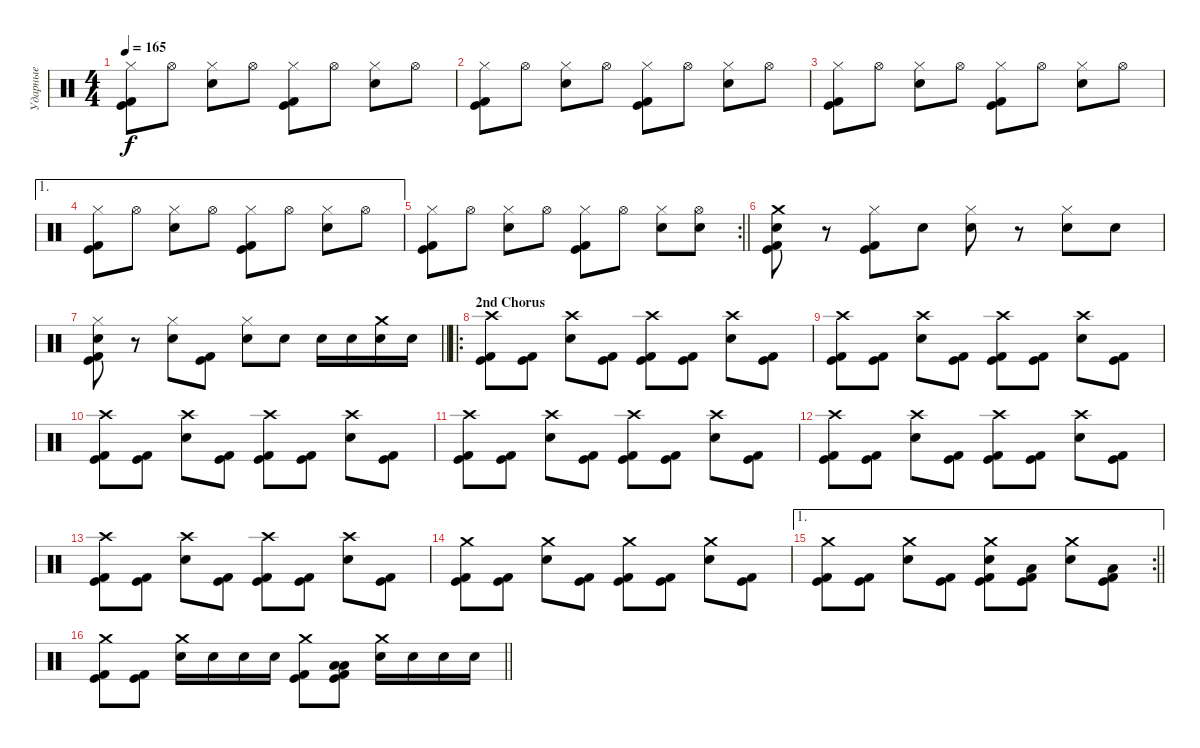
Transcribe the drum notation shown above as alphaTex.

\track ("Ударные" "Ударные") {instrument percussion}
\staff {score}
\articulation defaults
\ts (4 4)
\tempo 165
\clef neutral
\ks c
("Hi-Hat (closed)" "Kick (hit)" "Kick (hit) 2").8{dy f} "Hi-Hat (open)".8 ("Hi-Hat (closed)" "Electric Snare (hit)").8 "Hi-Hat (open)".8 ("Hi-Hat (closed)" "Kick (hit)" "Kick (hit) 2").8 "Hi-Hat (open)".8 ("Hi-Hat (closed)" "Electric Snare (hit)").8 "Hi-Hat (open)".8 |
("Hi-Hat (closed)" "Kick (hit)" "Kick (hit) 2").8 "Hi-Hat (open)".8 ("Hi-Hat (closed)" "Electric Snare (hit)").8 "Hi-Hat (open)".8 ("Hi-Hat (closed)" "Kick (hit)" "Kick (hit) 2").8 "Hi-Hat (open)".8 ("Hi-Hat (closed)" "Electric Snare (hit)").8 "Hi-Hat (open)".8 |
("Hi-Hat (closed)" "Kick (hit)" "Kick (hit) 2").8 "Hi-Hat (open)".8 ("Hi-Hat (closed)" "Electric Snare (hit)").8 "Hi-Hat (open)".8 ("Hi-Hat (closed)" "Kick (hit)" "Kick (hit) 2").8 "Hi-Hat (open)".8 ("Hi-Hat (closed)" "Electric Snare (hit)").8 "Hi-Hat (open)".8 |
\ae 1
("Hi-Hat (closed)" "Kick (hit)" "Kick (hit) 2").8 "Hi-Hat (open)".8 ("Hi-Hat (closed)" "Electric Snare (hit)").8 "Hi-Hat (open)".8 ("Hi-Hat (closed)" "Kick (hit)" "Kick (hit) 2").8 "Hi-Hat (open)".8 ("Hi-Hat (closed)" "Electric Snare (hit)").8 "Hi-Hat (open)".8 |
\rc 2
\barLineRight lightlight
("Hi-Hat (closed)" "Kick (hit)" "Kick (hit) 2").8 "Hi-Hat (open)".8 ("Hi-Hat (closed)" "Electric Snare (hit)").8 "Hi-Hat (open)".8 ("Hi-Hat (closed)" "Kick (hit)" "Kick (hit) 2").8 "Hi-Hat (open)".8 ("Hi-Hat (closed)" "Electric Snare (hit)").8 ("Hi-Hat (open)" "Electric Snare (hit)").8 |
("Crash medium (hit)" "Electric Snare (hit)" "Kick (hit)" "Kick (hit) 2").8 r.8 ("Hi-Hat (closed)" "Kick (hit)" "Kick (hit) 2").8 "Electric Snare (hit)".8 ("Hi-Hat (closed)" "Electric Snare (hit)").8 r.8 ("Hi-Hat (closed)" "Electric Snare (hit)").8 "Electric Snare (hit)".8 |
\barLineRight lightlight
("Hi-Hat (closed)" "Electric Snare (hit)" "Kick (hit)" "Kick (hit) 2").8 r.8 ("Hi-Hat (closed)" "Electric Snare (hit)").8 ("Kick (hit)" "Kick (hit) 2").8 ("Hi-Hat (closed)" "Electric Snare (hit)").8 "Electric Snare (hit)".8 "Electric Snare (hit)".16 "Electric Snare (hit)".16 ("Crash medium (hit)" "Electric Snare (hit)").16 "Electric Snare (hit)".16 |
\ro
\section ("" "2nd Chorus")
("Crash high (hit)" "Kick (hit)" "Kick (hit) 2").8 ("Kick (hit)" "Kick (hit) 2").8 ("Crash high (hit)" "Electric Snare (hit)").8 ("Kick (hit)" "Kick (hit) 2").8 ("Crash high (hit)" "Kick (hit)" "Kick (hit) 2").8 ("Kick (hit)" "Kick (hit) 2").8 ("Crash high (hit)" "Electric Snare (hit)").8 ("Kick (hit)" "Kick (hit) 2").8 |
("Crash high (hit)" "Kick (hit)" "Kick (hit) 2").8 ("Kick (hit)" "Kick (hit) 2").8 ("Crash high (hit)" "Electric Snare (hit)").8 ("Kick (hit)" "Kick (hit) 2").8 ("Crash high (hit)" "Kick (hit)" "Kick (hit) 2").8 ("Kick (hit)" "Kick (hit) 2").8 ("Crash high (hit)" "Electric Snare (hit)").8 ("Kick (hit)" "Kick (hit) 2").8 |
("Crash high (hit)" "Kick (hit)" "Kick (hit) 2").8 ("Kick (hit)" "Kick (hit) 2").8 ("Crash high (hit)" "Electric Snare (hit)").8 ("Kick (hit)" "Kick (hit) 2").8 ("Crash high (hit)" "Kick (hit)" "Kick (hit) 2").8 ("Kick (hit)" "Kick (hit) 2").8 ("Crash high (hit)" "Electric Snare (hit)").8 ("Kick (hit)" "Kick (hit) 2").8 |
("Crash high (hit)" "Kick (hit)" "Kick (hit) 2").8 ("Kick (hit)" "Kick (hit) 2").8 ("Crash high (hit)" "Electric Snare (hit)").8 ("Kick (hit)" "Kick (hit) 2").8 ("Crash high (hit)" "Kick (hit)" "Kick (hit) 2").8 ("Kick (hit)" "Kick (hit) 2").8 ("Crash high (hit)" "Electric Snare (hit)").8 ("Kick (hit)" "Kick (hit) 2").8 |
("Crash high (hit)" "Kick (hit)" "Kick (hit) 2").8 ("Kick (hit)" "Kick (hit) 2").8 ("Crash high (hit)" "Electric Snare (hit)").8 ("Kick (hit)" "Kick (hit) 2").8 ("Crash high (hit)" "Kick (hit)" "Kick (hit) 2").8 ("Kick (hit)" "Kick (hit) 2").8 ("Crash high (hit)" "Electric Snare (hit)").8 ("Kick (hit)" "Kick (hit) 2").8 |
("Crash high (hit)" "Kick (hit)" "Kick (hit) 2").8 ("Kick (hit)" "Kick (hit) 2").8 ("Crash high (hit)" "Electric Snare (hit)").8 ("Kick (hit)" "Kick (hit) 2").8 ("Crash high (hit)" "Kick (hit)" "Kick (hit) 2").8 ("Kick (hit)" "Kick (hit) 2").8 ("Crash high (hit)" "Electric Snare (hit)").8 ("Kick (hit)" "Kick (hit) 2").8 |
("Crash medium (hit)" "Kick (hit)" "Kick (hit) 2").8 ("Kick (hit)" "Kick (hit) 2").8 ("Crash medium (hit)" "Electric Snare (hit)").8 ("Kick (hit)" "Kick (hit) 2").8 ("Crash medium (hit)" "Kick (hit)" "Kick (hit) 2").8 ("Kick (hit)" "Kick (hit) 2").8 ("Crash medium (hit)" "Electric Snare (hit)").8 ("Kick (hit)" "Kick (hit) 2").8 |
\ae 1
\rc 2
\barLineRight lightlight
("Crash medium (hit)" "Kick (hit)" "Kick (hit) 2").8 ("Kick (hit)" "Kick (hit) 2").8 ("Crash medium (hit)" "Electric Snare (hit)").8 ("Kick (hit)" "Kick (hit) 2").8 ("Crash medium (hit)" "Electric Snare (hit)" "Kick (hit)" "Kick (hit) 2").8 ("Low Floor Tom (hit)" "Kick (hit)" "Kick (hit) 2").8 ("Crash medium (hit)" "Electric Snare (hit)").8 ("Low Floor Tom (hit)" "Kick (hit)" "Kick (hit) 2").8 |
\barLineRight lightlight
("Crash medium (hit)" "Kick (hit)" "Kick (hit) 2").8 ("Kick (hit)" "Kick (hit) 2").8 ("Crash medium (hit)" "Electric Snare (hit)").16 "Electric Snare (hit)".16 "Electric Snare (hit)".16 "Electric Snare (hit)".16 ("Crash medium (hit)" "Kick (hit)" "Kick (hit) 2").8 ("Low Tom (hit)" "Low Floor Tom (hit)" "Kick (hit)" "Kick (hit) 2").8 ("Crash medium (hit)" "Electric Snare (hit)").16 "Electric Snare (hit)".16 "Electric Snare (hit)".16 "Electric Snare (hit)".16
